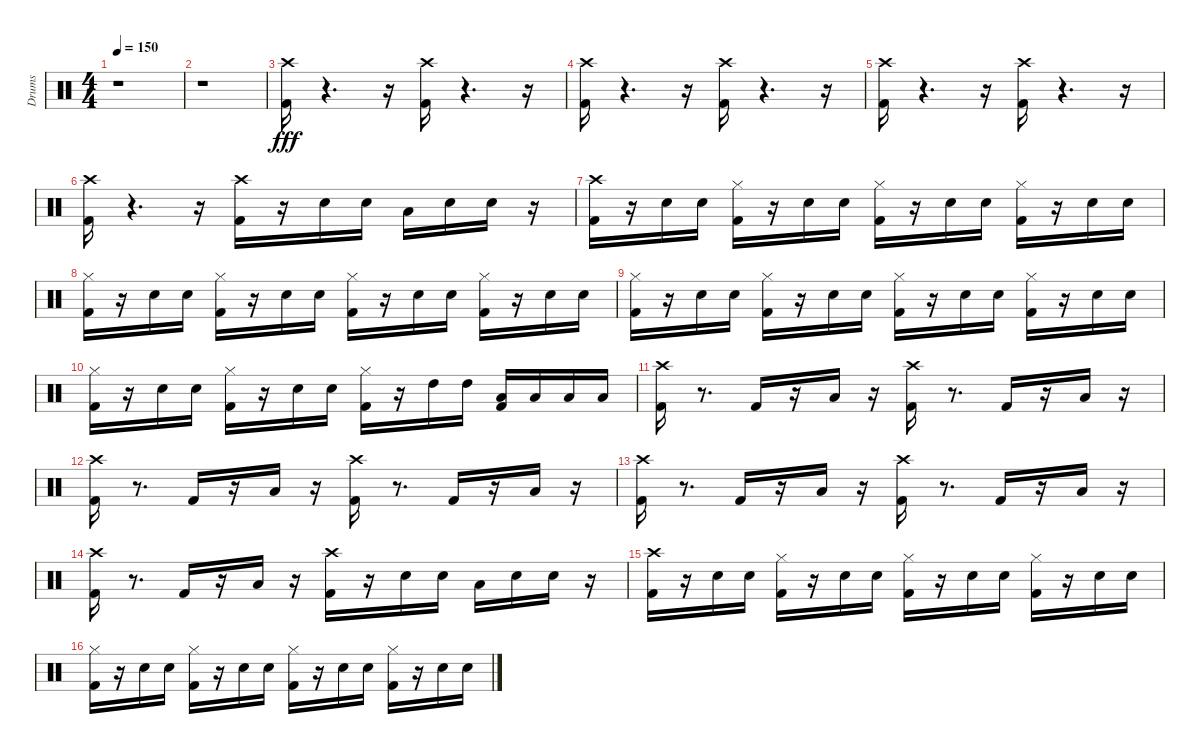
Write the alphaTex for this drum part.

\track ("Drums" "Drums") {instrument percussion}
\staff {score}
\articulation defaults
\ts (4 4)
\tempo 150
\clef neutral
\ks c
r.1{dy fff} |
r.1 |
("Crash high (hit)" "Kick (hit) 2").16 r.4{d} r.16 ("Kick (hit) 2" "Crash high (hit)").16 r.4{d} r.16 |
("Kick (hit) 2" "Crash high (hit)").16 r.4{d} r.16 ("Kick (hit) 2" "Crash high (hit)").16 r.4{d} r.16 |
("Kick (hit) 2" "Crash high (hit)").16 r.4{d} r.16 ("Crash high (hit)" "Kick (hit) 2").16 r.4{d} r.16 |
("Kick (hit) 2" "Crash high (hit)").16 r.4{d} r.16 ("Kick (hit) 2" "Crash high (hit)").16 r.16 "Snare (hit) 2".16 "Snare (hit) 2".16 "Low Tom (hit)".16 "Snare (hit) 2".16 "Snare (hit) 2".16 r.16 |
("Crash high (hit)" "Kick (hit) 2").16 r.16 "Snare (hit) 2".16 "Snare (hit) 2".16 ("Kick (hit) 2" "Hi-Hat (closed)").16 r.16 "Snare (hit) 2".16 "Snare (hit) 2".16 ("Hi-Hat (closed)" "Kick (hit) 2").16 r.16 "Snare (hit) 2".16 "Snare (hit) 2".16 ("Hi-Hat (closed)" "Kick (hit) 2").16 r.16 "Snare (hit) 2".16 "Snare (hit) 2".16 |
("Hi-Hat (closed)" "Kick (hit) 2").16 r.16 "Snare (hit) 2".16 "Snare (hit) 2".16 ("Kick (hit) 2" "Hi-Hat (closed)").16 r.16 "Snare (hit) 2".16 "Snare (hit) 2".16 ("Kick (hit) 2" "Hi-Hat (closed)").16 r.16 "Snare (hit) 2".16 "Snare (hit) 2".16 ("Hi-Hat (closed)" "Kick (hit) 2").16 r.16 "Snare (hit) 2".16 "Snare (hit) 2".16 |
("Kick (hit) 2" "Hi-Hat (closed)").16 r.16 "Snare (hit) 2".16 "Snare (hit) 2".16 ("Kick (hit) 2" "Hi-Hat (closed)").16 r.16 "Snare (hit) 2".16 "Snare (hit) 2".16 ("Kick (hit) 2" "Hi-Hat (closed)").16 r.16 "Snare (hit) 2".16 "Snare (hit) 2".16 ("Kick (hit) 2" "Hi-Hat (closed)").16 r.16 "Snare (hit) 2".16 "Snare (hit) 2".16 |
("Hi-Hat (closed)" "Kick (hit) 2").16 r.16 "Snare (hit) 2".16 "Snare (hit) 2".16 ("Kick (hit) 2" "Hi-Hat (closed)").16 r.16 "Snare (hit) 2".16 "Snare (hit) 2".16 ("Hi-Hat (closed)" "Kick (hit) 2").16 r.16 "High Tom (hit)".16 "High Tom (hit)".16 ("Low Tom (hit)" "Kick (hit) 2").16 "Low Tom (hit)".16 "Low Floor Tom (hit)".16 "Low Floor Tom (hit)".16 |
("Kick (hit) 2" "Crash high (hit)").16 r.8{d} "Kick (hit) 2".16 r.16 "Low Floor Tom (hit)".16 r.16 ("Crash high (hit)" "Kick (hit) 2").16 r.8{d} "Kick (hit) 2".16 r.16 "Low Floor Tom (hit)".16 r.16 |
("Crash high (hit)" "Kick (hit) 2").16 r.8{d} "Kick (hit) 2".16 r.16 "Low Floor Tom (hit)".16 r.16 ("Kick (hit) 2" "Crash high (hit)").16 r.8{d} "Kick (hit) 2".16 r.16 "Low Floor Tom (hit)".16 r.16 |
("Crash high (hit)" "Kick (hit) 2").16 r.8{d} "Kick (hit) 2".16 r.16 "Low Floor Tom (hit)".16 r.16 ("Crash high (hit)" "Kick (hit) 2").16 r.8{d} "Kick (hit) 2".16 r.16 "Low Floor Tom (hit)".16 r.16 |
("Kick (hit) 2" "Crash high (hit)").16 r.8{d} "Kick (hit) 2".16 r.16 "Low Floor Tom (hit)".16 r.16 ("Crash high (hit)" "Kick (hit) 2").16 r.16 "Snare (hit) 2".16 "Snare (hit) 2".16 "Low Tom (hit)".16 "Snare (hit) 2".16 "Snare (hit) 2".16 r.16 |
("Kick (hit) 2" "Crash high (hit)").16 r.16 "Snare (hit) 2".16 "Snare (hit) 2".16 ("Kick (hit) 2" "Hi-Hat (closed)").16 r.16 "Snare (hit) 2".16 "Snare (hit) 2".16 ("Hi-Hat (closed)" "Kick (hit) 2").16 r.16 "Snare (hit) 2".16 "Snare (hit) 2".16 ("Hi-Hat (closed)" "Kick (hit) 2").16 r.16 "Snare (hit) 2".16 "Snare (hit) 2".16 |
("Kick (hit) 2" "Hi-Hat (closed)").16 r.16 "Snare (hit) 2".16 "Snare (hit) 2".16 ("Hi-Hat (closed)" "Kick (hit) 2").16 r.16 "Snare (hit) 2".16 "Snare (hit) 2".16 ("Kick (hit) 2" "Hi-Hat (closed)").16 r.16 "Snare (hit) 2".16 "Snare (hit) 2".16 ("Hi-Hat (closed)" "Kick (hit) 2").16 r.16 "Snare (hit) 2".16 "Snare (hit) 2".16
